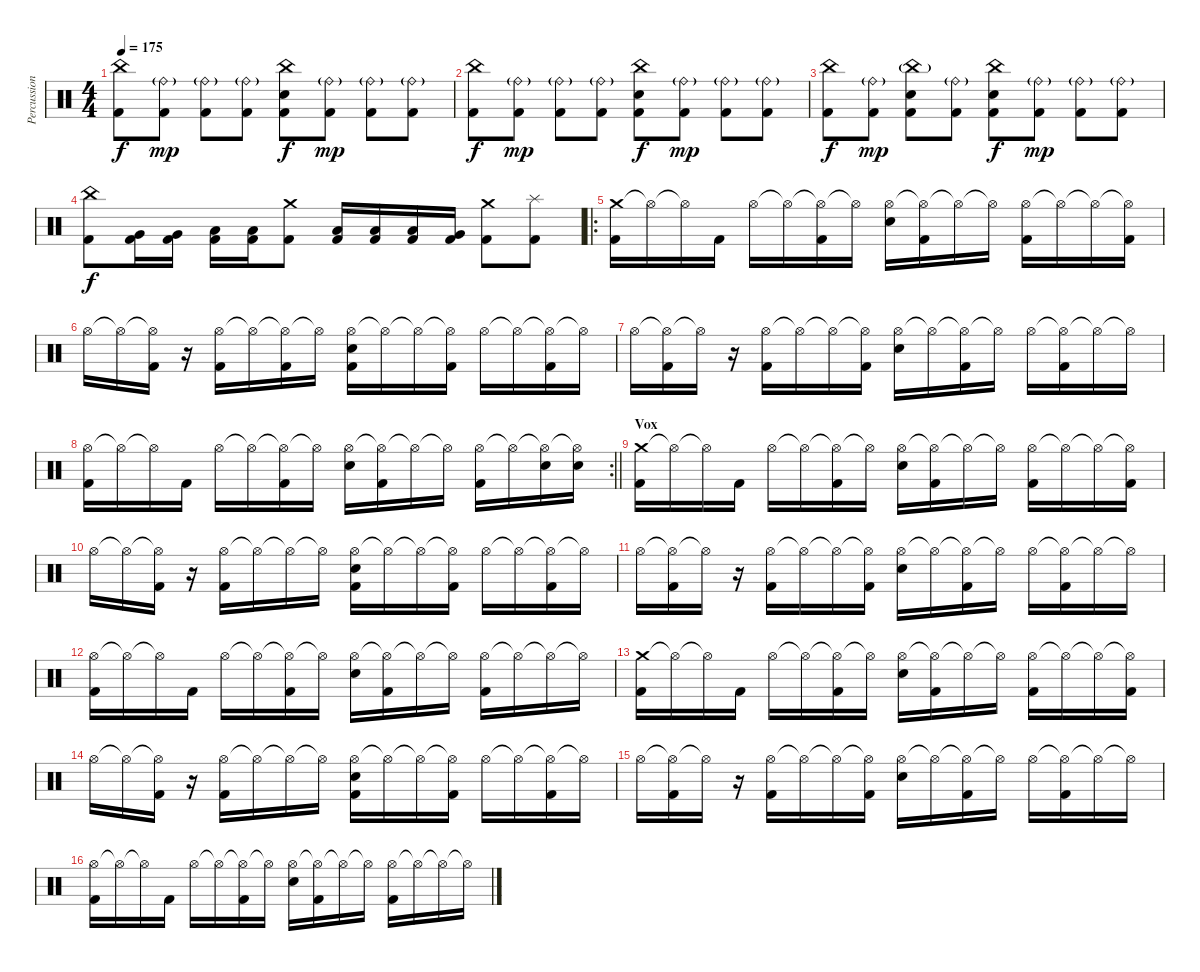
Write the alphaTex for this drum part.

\track ("Percussion" "Percussion") {instrument percussion}
\staff {score}
\articulation defaults
\ts (4 4)
\tempo 175
\clef neutral
\ks c
("China (hit)" "Kick (hit) 2").8{dy f} ("Ride (bell)"{g} "Kick (hit) 2").8{dy mp} ("Ride (bell)"{g} "Kick (hit) 2").8 ("Ride (bell)"{g} "Kick (hit) 2").8 ("China (hit)" "Electric Snare (hit)" "Kick (hit) 2").8{dy f} ("Ride (bell)"{g} "Kick (hit) 2").8{dy mp} ("Ride (bell)"{g} "Kick (hit) 2").8 ("Ride (bell)"{g} "Kick (hit) 2").8 |
("China (hit)" "Kick (hit) 2").8{dy f} ("Ride (bell)"{g} "Kick (hit) 2").8{dy mp} ("Ride (bell)"{g} "Kick (hit) 2").8 ("Ride (bell)"{g} "Kick (hit) 2").8 ("China (hit)" "Electric Snare (hit)" "Kick (hit) 2").8{dy f} ("Ride (bell)"{g} "Kick (hit) 2").8{dy mp} ("Ride (bell)"{g} "Kick (hit) 2").8 ("Ride (bell)"{g} "Kick (hit) 2").8 |
("China (hit)" "Kick (hit) 2").8{dy f} ("Ride (bell)"{g} "Kick (hit) 2").8{dy mp} ("China (hit)"{g} "Electric Snare (hit)" "Kick (hit) 2").8 ("Ride (bell)"{g} "Kick (hit) 2").8 ("China (hit)" "Electric Snare (hit)" "Kick (hit) 2").8{dy f} ("Ride (bell)"{g} "Kick (hit) 2").8{dy mp} ("Ride (bell)"{g} "Kick (hit) 2").8 ("Ride (bell)"{g} "Kick (hit) 2").8 |
("China (hit)" "Kick (hit) 2").8{dy f} ("Very Low Tom (hit)" "Kick (hit) 2").16 ("Very Low Tom (hit)" "Kick (hit) 2").16 ("Low Floor Tom (hit)" "Kick (hit) 2").16 ("Low Floor Tom (hit)" "Kick (hit) 2").16 ("Crash medium (hit)" "Kick (hit) 2").8 ("Low Tom (hit)" "Kick (hit) 2").16 ("Low Tom (hit)" "Kick (hit) 2").16 ("Low Tom (hit)" "Kick (hit) 2").16 ("Very Low Tom (hit)" "Kick (hit) 2").16 ("Crash medium (hit)" "Kick (hit) 2").8 ("Splash (hit)" "Kick (hit) 2").8 |
\ro
("Crash medium (hit)" "Kick (hit) 2").16 "Hi-Hat (open)"{t}.16 "Hi-Hat (open)"{t}.16 "Kick (hit) 2".16 "Hi-Hat (open)".16 "Hi-Hat (open)"{t}.16 ("Hi-Hat (open)"{t} "Kick (hit) 2").16 "Hi-Hat (open)"{t}.16 ("Hi-Hat (open)" "Electric Snare (hit)").16 ("Hi-Hat (open)"{t} "Kick (hit) 2").16 "Hi-Hat (open)"{t}.16 "Hi-Hat (open)"{t}.16 ("Hi-Hat (open)" "Kick (hit) 2").16 "Hi-Hat (open)"{t}.16 "Hi-Hat (open)"{t}.16 ("Hi-Hat (open)"{t} "Kick (hit) 2").16 |
"Hi-Hat (open)".16 "Hi-Hat (open)"{t}.16 ("Hi-Hat (open)"{t} "Kick (hit) 2").16 r.16 ("Hi-Hat (open)" "Kick (hit) 2").16 "Hi-Hat (open)"{t}.16 ("Hi-Hat (open)"{t} "Kick (hit) 2").16 "Hi-Hat (open)"{t}.16 ("Hi-Hat (open)" "Electric Snare (hit)" "Kick (hit) 2").16 "Hi-Hat (open)"{t}.16 "Hi-Hat (open)"{t}.16 ("Hi-Hat (open)"{t} "Kick (hit) 2").16 "Hi-Hat (open)".16 "Hi-Hat (open)"{t}.16 ("Hi-Hat (open)"{t} "Kick (hit) 2").16 "Hi-Hat (open)"{t}.16 |
"Hi-Hat (open)".16 ("Hi-Hat (open)"{t} "Kick (hit) 2").16 "Hi-Hat (open)"{t}.16 r.16 ("Hi-Hat (open)" "Kick (hit) 2").16 "Hi-Hat (open)"{t}.16 "Hi-Hat (open)"{t}.16 ("Hi-Hat (open)"{t} "Kick (hit) 2").16 ("Hi-Hat (open)" "Electric Snare (hit)").16 "Hi-Hat (open)"{t}.16 ("Hi-Hat (open)"{t} "Kick (hit) 2").16 "Hi-Hat (open)"{t}.16 "Hi-Hat (open)".16 ("Hi-Hat (open)"{t} "Kick (hit) 2").16 "Hi-Hat (open)"{t}.16 "Hi-Hat (open)"{t}.16 |
\rc 2
\barLineRight lightlight
("Hi-Hat (open)" "Kick (hit) 2").16 "Hi-Hat (open)"{t}.16 "Hi-Hat (open)"{t}.16 "Kick (hit) 2".16 "Hi-Hat (open)".16 "Hi-Hat (open)"{t}.16 ("Hi-Hat (open)"{t} "Kick (hit) 2").16 "Hi-Hat (open)"{t}.16 ("Hi-Hat (open)" "Electric Snare (hit)").16 ("Hi-Hat (open)"{t} "Kick (hit) 2").16 "Hi-Hat (open)"{t}.16 "Hi-Hat (open)"{t}.16 ("Hi-Hat (open)" "Kick (hit) 2").16 "Hi-Hat (open)"{t}.16 ("Hi-Hat (open)"{t} "Electric Snare (hit)").16 ("Hi-Hat (open)"{t} "Electric Snare (hit)").16 |
\section ("" "Vox")
("Crash medium (hit)" "Kick (hit) 2").16 "Hi-Hat (open)"{t}.16 "Hi-Hat (open)"{t}.16 "Kick (hit) 2".16 "Hi-Hat (open)".16 "Hi-Hat (open)"{t}.16 ("Hi-Hat (open)"{t} "Kick (hit) 2").16 "Hi-Hat (open)"{t}.16 ("Hi-Hat (open)" "Electric Snare (hit)").16 ("Hi-Hat (open)"{t} "Kick (hit) 2").16 "Hi-Hat (open)"{t}.16 "Hi-Hat (open)"{t}.16 ("Hi-Hat (open)" "Kick (hit) 2").16 "Hi-Hat (open)"{t}.16 "Hi-Hat (open)"{t}.16 ("Hi-Hat (open)"{t} "Kick (hit) 2").16 |
"Hi-Hat (open)".16 "Hi-Hat (open)"{t}.16 ("Hi-Hat (open)"{t} "Kick (hit) 2").16 r.16 ("Hi-Hat (open)" "Kick (hit) 2").16 "Hi-Hat (open)"{t}.16 "Hi-Hat (open)"{t}.16 "Hi-Hat (open)"{t}.16 ("Hi-Hat (open)" "Electric Snare (hit)" "Kick (hit) 2").16 "Hi-Hat (open)"{t}.16 "Hi-Hat (open)"{t}.16 ("Hi-Hat (open)"{t} "Kick (hit) 2").16 "Hi-Hat (open)".16 "Hi-Hat (open)"{t}.16 ("Hi-Hat (open)"{t} "Kick (hit) 2").16 "Hi-Hat (open)"{t}.16 |
"Hi-Hat (open)".16 ("Hi-Hat (open)"{t} "Kick (hit) 2").16 "Hi-Hat (open)"{t}.16 r.16 ("Hi-Hat (open)" "Kick (hit) 2").16 "Hi-Hat (open)"{t}.16 "Hi-Hat (open)"{t}.16 ("Hi-Hat (open)"{t} "Kick (hit) 2").16 ("Hi-Hat (open)" "Electric Snare (hit)").16 "Hi-Hat (open)"{t}.16 ("Hi-Hat (open)"{t} "Kick (hit) 2").16 "Hi-Hat (open)"{t}.16 "Hi-Hat (open)".16 ("Hi-Hat (open)"{t} "Kick (hit) 2").16 "Hi-Hat (open)"{t}.16 "Hi-Hat (open)"{t}.16 |
("Hi-Hat (open)" "Kick (hit) 2").16 "Hi-Hat (open)"{t}.16 "Hi-Hat (open)"{t}.16 "Kick (hit) 2".16 "Hi-Hat (open)".16 "Hi-Hat (open)"{t}.16 ("Hi-Hat (open)"{t} "Kick (hit) 2").16 "Hi-Hat (open)"{t}.16 ("Hi-Hat (open)" "Electric Snare (hit)").16 ("Hi-Hat (open)"{t} "Kick (hit) 2").16 "Hi-Hat (open)"{t}.16 "Hi-Hat (open)"{t}.16 ("Hi-Hat (open)" "Kick (hit) 2").16 "Hi-Hat (open)"{t}.16 "Hi-Hat (open)"{t}.16 "Hi-Hat (open)"{t}.16 |
("Crash medium (hit)" "Kick (hit) 2").16 "Hi-Hat (open)"{t}.16 "Hi-Hat (open)"{t}.16 "Kick (hit) 2".16 "Hi-Hat (open)".16 "Hi-Hat (open)"{t}.16 ("Hi-Hat (open)"{t} "Kick (hit) 2").16 "Hi-Hat (open)"{t}.16 ("Hi-Hat (open)" "Electric Snare (hit)").16 ("Hi-Hat (open)"{t} "Kick (hit) 2").16 "Hi-Hat (open)"{t}.16 "Hi-Hat (open)"{t}.16 ("Hi-Hat (open)" "Kick (hit) 2").16 "Hi-Hat (open)"{t}.16 "Hi-Hat (open)"{t}.16 ("Hi-Hat (open)"{t} "Kick (hit) 2").16 |
"Hi-Hat (open)".16 "Hi-Hat (open)"{t}.16 ("Hi-Hat (open)"{t} "Kick (hit) 2").16 r.16 ("Hi-Hat (open)" "Kick (hit) 2").16 "Hi-Hat (open)"{t}.16 "Hi-Hat (open)"{t}.16 "Hi-Hat (open)"{t}.16 ("Hi-Hat (open)" "Electric Snare (hit)" "Kick (hit) 2").16 "Hi-Hat (open)"{t}.16 "Hi-Hat (open)"{t}.16 ("Hi-Hat (open)"{t} "Kick (hit) 2").16 "Hi-Hat (open)".16 "Hi-Hat (open)"{t}.16 ("Hi-Hat (open)"{t} "Kick (hit) 2").16 "Hi-Hat (open)"{t}.16 |
"Hi-Hat (open)".16 ("Hi-Hat (open)"{t} "Kick (hit) 2").16 "Hi-Hat (open)"{t}.16 r.16 ("Hi-Hat (open)" "Kick (hit) 2").16 "Hi-Hat (open)"{t}.16 "Hi-Hat (open)"{t}.16 ("Hi-Hat (open)"{t} "Kick (hit) 2").16 ("Hi-Hat (open)" "Electric Snare (hit)").16 "Hi-Hat (open)"{t}.16 ("Hi-Hat (open)"{t} "Kick (hit) 2").16 "Hi-Hat (open)"{t}.16 "Hi-Hat (open)".16 ("Hi-Hat (open)"{t} "Kick (hit) 2").16 "Hi-Hat (open)"{t}.16 "Hi-Hat (open)"{t}.16 |
("Hi-Hat (open)" "Kick (hit) 2").16 "Hi-Hat (open)"{t}.16 "Hi-Hat (open)"{t}.16 "Kick (hit) 2".16 "Hi-Hat (open)".16 "Hi-Hat (open)"{t}.16 ("Hi-Hat (open)"{t} "Kick (hit) 2").16 "Hi-Hat (open)"{t}.16 ("Hi-Hat (open)" "Electric Snare (hit)").16 ("Hi-Hat (open)"{t} "Kick (hit) 2").16 "Hi-Hat (open)"{t}.16 "Hi-Hat (open)"{t}.16 ("Hi-Hat (open)" "Kick (hit) 2").16 "Hi-Hat (open)"{t}.16 "Hi-Hat (open)"{t}.16 "Hi-Hat (open)"{t}.16
